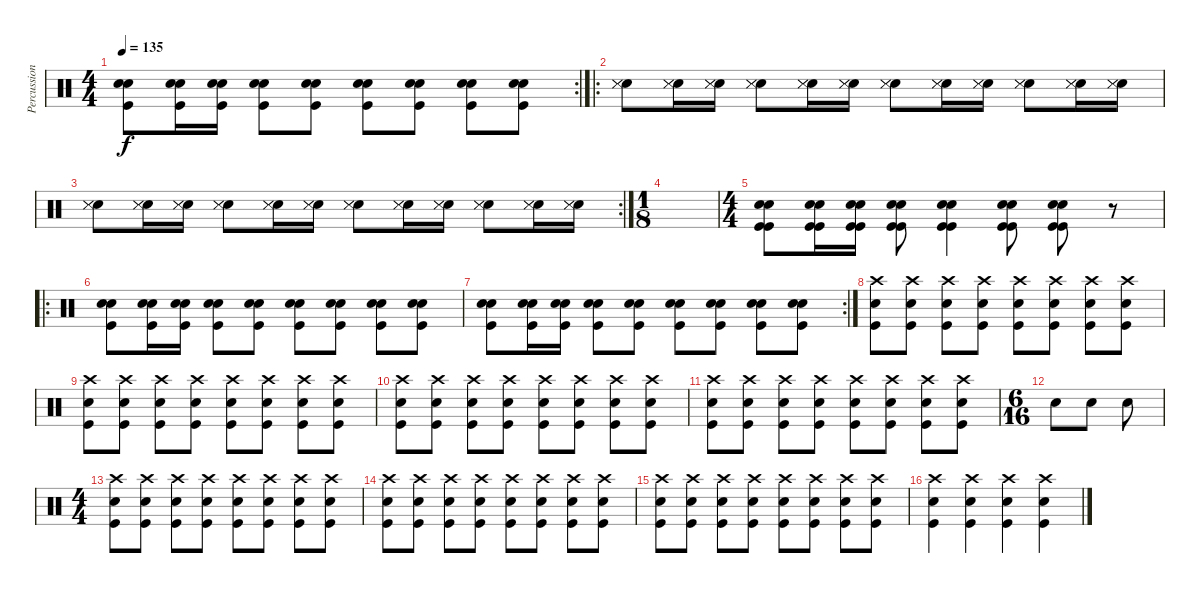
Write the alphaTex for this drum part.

\track ("Percussion" "Percussion") {instrument percussion}
\staff {score}
\articulation defaults
\rc 2
\ts (4 4)
\tempo 135
\clef neutral
\ks c
("Snare (hit) 2" "Kick (hit)" "Hand Clap (hit)").8{dy f} ("Snare (hit) 2" "Kick (hit)" "Hand Clap (hit)").16 ("Snare (hit) 2" "Kick (hit)" "Hand Clap (hit)").16 ("Snare (hit) 2" "Kick (hit)" "Hand Clap (hit)").8 ("Snare (hit) 2" "Kick (hit)" "Hand Clap (hit)").8 ("Snare (hit) 2" "Kick (hit)" "Hand Clap (hit)").8 ("Snare (hit) 2" "Kick (hit)" "Hand Clap (hit)").8 ("Snare (hit) 2" "Kick (hit)" "Hand Clap (hit)").8 ("Snare (hit) 2" "Kick (hit)" "Hand Clap (hit)").8 |
\ro
("Electric Snare (hit)" "Snare (side stick) 3" "Snare (side stick) 3").8 ("Electric Snare (hit)" "Snare (side stick) 3" "Snare (side stick) 3").16 ("Electric Snare (hit)" "Snare (side stick) 3" "Snare (side stick) 3").16 ("Electric Snare (hit)" "Snare (side stick) 3" "Snare (side stick) 3").8 ("Electric Snare (hit)" "Snare (side stick) 3" "Snare (side stick) 3").16 ("Electric Snare (hit)" "Snare (side stick) 3" "Snare (side stick) 3").16 ("Electric Snare (hit)" "Snare (side stick) 3" "Snare (side stick) 3").8 ("Electric Snare (hit)" "Snare (side stick) 3" "Snare (side stick) 3").16 ("Electric Snare (hit)" "Snare (side stick) 3" "Snare (side stick) 3").16 ("Electric Snare (hit)" "Snare (side stick) 3" "Snare (side stick) 3").8 ("Electric Snare (hit)" "Snare (side stick) 3" "Snare (side stick) 3").16 ("Electric Snare (hit)" "Snare (side stick) 3" "Snare (side stick) 3").16 |
\rc 2
("Electric Snare (hit)" "Snare (side stick) 3" "Snare (side stick) 3").8 ("Electric Snare (hit)" "Snare (side stick) 3" "Snare (side stick) 3").16 ("Electric Snare (hit)" "Snare (side stick) 3" "Snare (side stick) 3").16 ("Electric Snare (hit)" "Snare (side stick) 3" "Snare (side stick) 3").8 ("Electric Snare (hit)" "Snare (side stick) 3" "Snare (side stick) 3").16 ("Electric Snare (hit)" "Snare (side stick) 3" "Snare (side stick) 3").16 ("Electric Snare (hit)" "Snare (side stick) 3" "Snare (side stick) 3").8 ("Electric Snare (hit)" "Snare (side stick) 3" "Snare (side stick) 3").16 ("Electric Snare (hit)" "Snare (side stick) 3" "Snare (side stick) 3").16 ("Electric Snare (hit)" "Snare (side stick) 3" "Snare (side stick) 3").8 ("Electric Snare (hit)" "Snare (side stick) 3" "Snare (side stick) 3").16 ("Electric Snare (hit)" "Snare (side stick) 3" "Snare (side stick) 3").16 |
\ts (1 8)
|
\ts (4 4)
("Snare (hit) 2" "Hand Clap (hit)" "Kick (hit)" "Kick (hit)").8 ("Snare (hit) 2" "Hand Clap (hit)" "Kick (hit)" "Kick (hit)").16 ("Snare (hit) 2" "Hand Clap (hit)" "Kick (hit)" "Kick (hit)").16 ("Snare (hit) 2" "Hand Clap (hit)" "Kick (hit)" "Kick (hit)").8 ("Snare (hit) 2" "Hand Clap (hit)" "Kick (hit)" "Kick (hit)").4 ("Snare (hit) 2" "Hand Clap (hit)" "Kick (hit)" "Kick (hit)").8 ("Snare (hit) 2" "Hand Clap (hit)" "Kick (hit)" "Kick (hit)").8 r.8 |
\ro
("Snare (hit) 2" "Kick (hit)" "Hand Clap (hit)").8 ("Snare (hit) 2" "Kick (hit)" "Hand Clap (hit)").16 ("Snare (hit) 2" "Kick (hit)" "Hand Clap (hit)").16 ("Snare (hit) 2" "Kick (hit)" "Hand Clap (hit)").8 ("Snare (hit) 2" "Kick (hit)" "Hand Clap (hit)").8 ("Snare (hit) 2" "Kick (hit)" "Hand Clap (hit)").8 ("Snare (hit) 2" "Kick (hit)" "Hand Clap (hit)").8 ("Snare (hit) 2" "Kick (hit)" "Hand Clap (hit)").8 ("Snare (hit) 2" "Kick (hit)" "Hand Clap (hit)").8 |
\rc 2
("Snare (hit) 2" "Kick (hit)" "Hand Clap (hit)").8 ("Snare (hit) 2" "Kick (hit)" "Hand Clap (hit)").16 ("Snare (hit) 2" "Kick (hit)" "Hand Clap (hit)").16 ("Snare (hit) 2" "Kick (hit)" "Hand Clap (hit)").8 ("Snare (hit) 2" "Kick (hit)" "Hand Clap (hit)").8 ("Snare (hit) 2" "Kick (hit)" "Hand Clap (hit)").8 ("Snare (hit) 2" "Kick (hit)" "Hand Clap (hit)").8 ("Snare (hit) 2" "Kick (hit)" "Hand Clap (hit)").8 ("Snare (hit) 2" "Kick (hit)" "Hand Clap (hit)").8 |
("Snare (hit) 2" "Crash high (hit)" "Kick (hit)").8 ("Crash high (hit)" "Snare (hit) 2" "Kick (hit)").8 ("Snare (hit) 2" "Crash high (hit)" "Kick (hit)").8 ("Crash high (hit)" "Snare (hit) 2" "Kick (hit)").8 ("Snare (hit) 2" "Crash high (hit)" "Kick (hit)").8 ("Crash high (hit)" "Snare (hit) 2" "Kick (hit)").8 ("Snare (hit) 2" "Crash high (hit)" "Kick (hit)").8 ("Crash high (hit)" "Snare (hit) 2" "Kick (hit)").8 |
("Snare (hit) 2" "Crash high (hit)" "Kick (hit)").8 ("Snare (hit) 2" "Crash high (hit)" "Kick (hit)").8 ("Snare (hit) 2" "Crash high (hit)" "Kick (hit)").8 ("Snare (hit) 2" "Crash high (hit)" "Kick (hit)").8 ("Snare (hit) 2" "Crash high (hit)" "Kick (hit)").8 ("Snare (hit) 2" "Crash high (hit)" "Kick (hit)").8 ("Snare (hit) 2" "Crash high (hit)" "Kick (hit)").8 ("Snare (hit) 2" "Crash high (hit)" "Kick (hit)").8 |
("Snare (hit) 2" "Crash high (hit)" "Kick (hit)").8 ("Snare (hit) 2" "Crash high (hit)" "Kick (hit)").8 ("Snare (hit) 2" "Crash high (hit)" "Kick (hit)").8 ("Snare (hit) 2" "Crash high (hit)" "Kick (hit)").8 ("Snare (hit) 2" "Crash high (hit)" "Kick (hit)").8 ("Snare (hit) 2" "Crash high (hit)" "Kick (hit)").8 ("Snare (hit) 2" "Crash high (hit)" "Kick (hit)").8 ("Snare (hit) 2" "Crash high (hit)" "Kick (hit)").8 |
("Snare (hit) 2" "Crash high (hit)" "Kick (hit)").8 ("Snare (hit) 2" "Crash high (hit)" "Kick (hit)").8 ("Snare (hit) 2" "Crash high (hit)" "Kick (hit)").8 ("Snare (hit) 2" "Crash high (hit)" "Kick (hit)").8 ("Snare (hit) 2" "Crash high (hit)" "Kick (hit)").8 ("Snare (hit) 2" "Crash high (hit)" "Kick (hit)").8 ("Snare (hit) 2" "Crash high (hit)" "Kick (hit)").8 ("Snare (hit) 2" "Crash high (hit)" "Kick (hit)").8 |
\ts (6 16)
"Snare (hit) 2".8 "Snare (hit) 2".8 "Snare (hit) 2".8 |
\ts (4 4)
("Snare (hit) 2" "Crash high (hit)" "Kick (hit)").8 ("Crash high (hit)" "Snare (hit) 2" "Kick (hit)").8 ("Snare (hit) 2" "Crash high (hit)" "Kick (hit)").8 ("Crash high (hit)" "Snare (hit) 2" "Kick (hit)").8 ("Snare (hit) 2" "Crash high (hit)" "Kick (hit)").8 ("Crash high (hit)" "Snare (hit) 2" "Kick (hit)").8 ("Snare (hit) 2" "Crash high (hit)" "Kick (hit)").8 ("Crash high (hit)" "Snare (hit) 2" "Kick (hit)").8 |
("Snare (hit) 2" "Crash high (hit)" "Kick (hit)").8 ("Snare (hit) 2" "Crash high (hit)" "Kick (hit)").8 ("Snare (hit) 2" "Crash high (hit)" "Kick (hit)").8 ("Snare (hit) 2" "Crash high (hit)" "Kick (hit)").8 ("Snare (hit) 2" "Crash high (hit)" "Kick (hit)").8 ("Snare (hit) 2" "Crash high (hit)" "Kick (hit)").8 ("Snare (hit) 2" "Crash high (hit)" "Kick (hit)").8 ("Snare (hit) 2" "Crash high (hit)" "Kick (hit)").8 |
("Snare (hit) 2" "Crash high (hit)" "Kick (hit)").8 ("Snare (hit) 2" "Crash high (hit)" "Kick (hit)").8 ("Snare (hit) 2" "Crash high (hit)" "Kick (hit)").8 ("Snare (hit) 2" "Crash high (hit)" "Kick (hit)").8 ("Snare (hit) 2" "Crash high (hit)" "Kick (hit)").8 ("Snare (hit) 2" "Crash high (hit)" "Kick (hit)").8 ("Snare (hit) 2" "Crash high (hit)" "Kick (hit)").8 ("Snare (hit) 2" "Crash high (hit)" "Kick (hit)").8 |
("Snare (hit) 2" "Crash high (hit)" "Kick (hit)").4 ("Snare (hit) 2" "Crash high (hit)" "Kick (hit)").4 ("Snare (hit) 2" "Crash high (hit)" "Kick (hit)").4 ("Snare (hit) 2" "Crash high (hit)" "Kick (hit)").4
